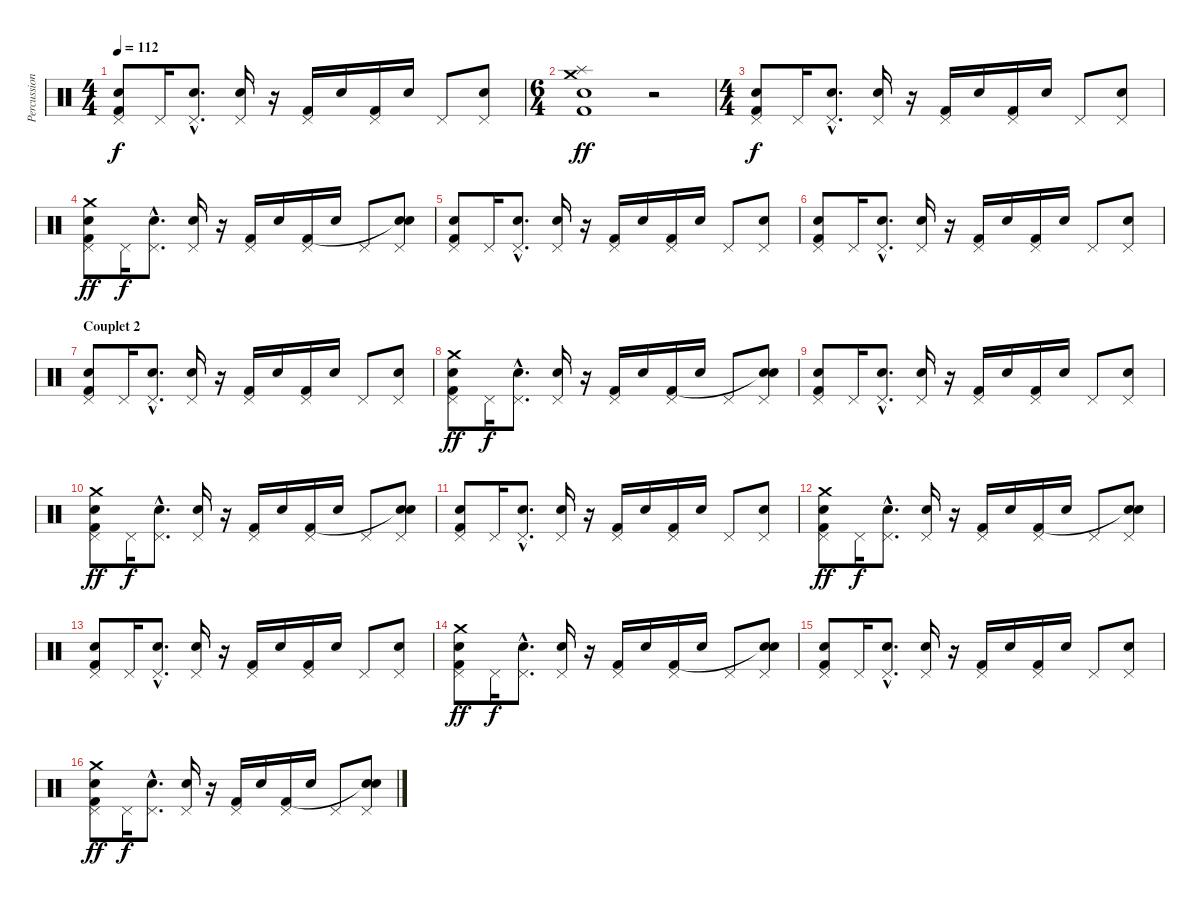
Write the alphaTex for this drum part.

\track ("Percussions" "Percussion") {instrument percussion}
\staff {score}
\articulation defaults
\ts (4 4)
\tempo 112
\clef neutral
\ks c
("Pedal Hi-Hat (hit)" "Kick (hit) 2" "Electric Snare (hit)").8{dy f} "Pedal Hi-Hat (hit)".16 ("Pedal Hi-Hat (hit)"{hac} "Electric Snare (hit)"{hac}).8{d} ("Pedal Hi-Hat (hit)" "Electric Snare (hit)").16 r.16 ("Pedal Hi-Hat (hit)" "Kick (hit) 2").16 "Electric Snare (hit)".16 ("Pedal Hi-Hat (hit)" "Kick (hit) 2").16 "Electric Snare (hit)".16 "Pedal Hi-Hat (hit)".8 ("Pedal Hi-Hat (hit)" "Electric Snare (hit)").8 |
\ts (6 4)
("Splash (hit)" "Crash medium (hit)" "Kick (hit) 2" "Electric Snare (hit)").1{dy ff} r.2 |
\ts (4 4)
("Pedal Hi-Hat (hit)" "Kick (hit) 2" "Electric Snare (hit)").8{dy f} "Pedal Hi-Hat (hit)".16 ("Pedal Hi-Hat (hit)"{hac} "Electric Snare (hit)"{hac}).8{d} ("Pedal Hi-Hat (hit)" "Electric Snare (hit)").16 r.16 ("Pedal Hi-Hat (hit)" "Kick (hit) 2").16 "Electric Snare (hit)".16 ("Pedal Hi-Hat (hit)" "Kick (hit) 2").16 "Electric Snare (hit)".16 "Pedal Hi-Hat (hit)".8 ("Pedal Hi-Hat (hit)" "Electric Snare (hit)").8 |
("Pedal Hi-Hat (hit)" "Crash medium (hit)" "Kick (hit) 2" "Electric Snare (hit)").8{dy ff} "Pedal Hi-Hat (hit)".16{dy f} ("Pedal Hi-Hat (hit)"{hac} "Electric Snare (hit)"{hac}).8{d} ("Pedal Hi-Hat (hit)" "Electric Snare (hit)").16 r.16 ("Pedal Hi-Hat (hit)" "Kick (hit) 2").16 "Electric Snare (hit)".16 ("Pedal Hi-Hat (hit)" "Kick (hit) 2").16 "Electric Snare (hit)".16 "Pedal Hi-Hat (hit)".8 ("Pedal Hi-Hat (hit)" "Snare (hit)"{t} "Electric Snare (hit)").8 |
("Pedal Hi-Hat (hit)" "Kick (hit) 2" "Electric Snare (hit)").8 "Pedal Hi-Hat (hit)".16 ("Pedal Hi-Hat (hit)"{hac} "Electric Snare (hit)"{hac}).8{d} ("Pedal Hi-Hat (hit)" "Electric Snare (hit)").16 r.16 ("Pedal Hi-Hat (hit)" "Kick (hit) 2").16 "Electric Snare (hit)".16 ("Pedal Hi-Hat (hit)" "Kick (hit) 2").16 "Electric Snare (hit)".16 "Pedal Hi-Hat (hit)".8 ("Pedal Hi-Hat (hit)" "Electric Snare (hit)").8 |
("Pedal Hi-Hat (hit)" "Kick (hit) 2" "Electric Snare (hit)").8 "Pedal Hi-Hat (hit)".16 ("Pedal Hi-Hat (hit)"{hac} "Electric Snare (hit)"{hac}).8{d} ("Pedal Hi-Hat (hit)" "Electric Snare (hit)").16 r.16 ("Pedal Hi-Hat (hit)" "Kick (hit) 2").16 "Electric Snare (hit)".16 ("Pedal Hi-Hat (hit)" "Kick (hit) 2").16 "Electric Snare (hit)".16 "Pedal Hi-Hat (hit)".8 ("Pedal Hi-Hat (hit)" "Electric Snare (hit)").8 |
\section ("" "Couplet 2")
("Pedal Hi-Hat (hit)" "Kick (hit) 2" "Electric Snare (hit)").8 "Pedal Hi-Hat (hit)".16 ("Pedal Hi-Hat (hit)"{hac} "Electric Snare (hit)"{hac}).8{d} ("Pedal Hi-Hat (hit)" "Electric Snare (hit)").16 r.16 ("Pedal Hi-Hat (hit)" "Kick (hit) 2").16 "Electric Snare (hit)".16 ("Pedal Hi-Hat (hit)" "Kick (hit) 2").16 "Electric Snare (hit)".16 "Pedal Hi-Hat (hit)".8 ("Pedal Hi-Hat (hit)" "Electric Snare (hit)").8 |
("Pedal Hi-Hat (hit)" "Crash medium (hit)" "Kick (hit) 2" "Electric Snare (hit)").8{dy ff} "Pedal Hi-Hat (hit)".16{dy f} ("Pedal Hi-Hat (hit)"{hac} "Electric Snare (hit)"{hac}).8{d} ("Pedal Hi-Hat (hit)" "Electric Snare (hit)").16 r.16 ("Pedal Hi-Hat (hit)" "Kick (hit) 2").16 "Electric Snare (hit)".16 ("Pedal Hi-Hat (hit)" "Kick (hit) 2").16 "Electric Snare (hit)".16 "Pedal Hi-Hat (hit)".8 ("Pedal Hi-Hat (hit)" "Snare (hit)"{t} "Electric Snare (hit)").8 |
("Pedal Hi-Hat (hit)" "Kick (hit) 2" "Electric Snare (hit)").8 "Pedal Hi-Hat (hit)".16 ("Pedal Hi-Hat (hit)"{hac} "Electric Snare (hit)"{hac}).8{d} ("Pedal Hi-Hat (hit)" "Electric Snare (hit)").16 r.16 ("Pedal Hi-Hat (hit)" "Kick (hit) 2").16 "Electric Snare (hit)".16 ("Pedal Hi-Hat (hit)" "Kick (hit) 2").16 "Electric Snare (hit)".16 "Pedal Hi-Hat (hit)".8 ("Pedal Hi-Hat (hit)" "Electric Snare (hit)").8 |
("Pedal Hi-Hat (hit)" "Crash medium (hit)" "Kick (hit) 2" "Electric Snare (hit)").8{dy ff} "Pedal Hi-Hat (hit)".16{dy f} ("Pedal Hi-Hat (hit)"{hac} "Electric Snare (hit)"{hac}).8{d} ("Pedal Hi-Hat (hit)" "Electric Snare (hit)").16 r.16 ("Pedal Hi-Hat (hit)" "Kick (hit) 2").16 "Electric Snare (hit)".16 ("Pedal Hi-Hat (hit)" "Kick (hit) 2").16 "Electric Snare (hit)".16 "Pedal Hi-Hat (hit)".8 ("Pedal Hi-Hat (hit)" "Snare (hit)"{t} "Electric Snare (hit)").8 |
("Pedal Hi-Hat (hit)" "Kick (hit) 2" "Electric Snare (hit)").8 "Pedal Hi-Hat (hit)".16 ("Pedal Hi-Hat (hit)"{hac} "Electric Snare (hit)"{hac}).8{d} ("Pedal Hi-Hat (hit)" "Electric Snare (hit)").16 r.16 ("Pedal Hi-Hat (hit)" "Kick (hit) 2").16 "Electric Snare (hit)".16 ("Pedal Hi-Hat (hit)" "Kick (hit) 2").16 "Electric Snare (hit)".16 "Pedal Hi-Hat (hit)".8 ("Pedal Hi-Hat (hit)" "Electric Snare (hit)").8 |
("Pedal Hi-Hat (hit)" "Crash medium (hit)" "Kick (hit) 2" "Electric Snare (hit)").8{dy ff} "Pedal Hi-Hat (hit)".16{dy f} ("Pedal Hi-Hat (hit)"{hac} "Electric Snare (hit)"{hac}).8{d} ("Pedal Hi-Hat (hit)" "Electric Snare (hit)").16 r.16 ("Pedal Hi-Hat (hit)" "Kick (hit) 2").16 "Electric Snare (hit)".16 ("Pedal Hi-Hat (hit)" "Kick (hit) 2").16 "Electric Snare (hit)".16 "Pedal Hi-Hat (hit)".8 ("Pedal Hi-Hat (hit)" "Snare (hit)"{t} "Electric Snare (hit)").8 |
("Pedal Hi-Hat (hit)" "Kick (hit) 2" "Electric Snare (hit)").8 "Pedal Hi-Hat (hit)".16 ("Pedal Hi-Hat (hit)"{hac} "Electric Snare (hit)"{hac}).8{d} ("Pedal Hi-Hat (hit)" "Electric Snare (hit)").16 r.16 ("Pedal Hi-Hat (hit)" "Kick (hit) 2").16 "Electric Snare (hit)".16 ("Pedal Hi-Hat (hit)" "Kick (hit) 2").16 "Electric Snare (hit)".16 "Pedal Hi-Hat (hit)".8 ("Pedal Hi-Hat (hit)" "Electric Snare (hit)").8 |
("Pedal Hi-Hat (hit)" "Crash medium (hit)" "Kick (hit) 2" "Electric Snare (hit)").8{dy ff} "Pedal Hi-Hat (hit)".16{dy f} ("Pedal Hi-Hat (hit)"{hac} "Electric Snare (hit)"{hac}).8{d} ("Pedal Hi-Hat (hit)" "Electric Snare (hit)").16 r.16 ("Pedal Hi-Hat (hit)" "Kick (hit) 2").16 "Electric Snare (hit)".16 ("Pedal Hi-Hat (hit)" "Kick (hit) 2").16 "Electric Snare (hit)".16 "Pedal Hi-Hat (hit)".8 ("Pedal Hi-Hat (hit)" "Snare (hit)"{t} "Electric Snare (hit)").8 |
("Pedal Hi-Hat (hit)" "Kick (hit) 2" "Electric Snare (hit)").8 "Pedal Hi-Hat (hit)".16 ("Pedal Hi-Hat (hit)"{hac} "Electric Snare (hit)"{hac}).8{d} ("Pedal Hi-Hat (hit)" "Electric Snare (hit)").16 r.16 ("Pedal Hi-Hat (hit)" "Kick (hit) 2").16 "Electric Snare (hit)".16 ("Pedal Hi-Hat (hit)" "Kick (hit) 2").16 "Electric Snare (hit)".16 "Pedal Hi-Hat (hit)".8 ("Pedal Hi-Hat (hit)" "Electric Snare (hit)").8 |
("Pedal Hi-Hat (hit)" "Crash medium (hit)" "Kick (hit) 2" "Electric Snare (hit)").8{dy ff} "Pedal Hi-Hat (hit)".16{dy f} ("Pedal Hi-Hat (hit)"{hac} "Electric Snare (hit)"{hac}).8{d} ("Pedal Hi-Hat (hit)" "Electric Snare (hit)").16 r.16 ("Pedal Hi-Hat (hit)" "Kick (hit) 2").16 "Electric Snare (hit)".16 ("Pedal Hi-Hat (hit)" "Kick (hit) 2").16 "Electric Snare (hit)".16 "Pedal Hi-Hat (hit)".8 ("Pedal Hi-Hat (hit)" "Snare (hit)"{t} "Electric Snare (hit)").8
